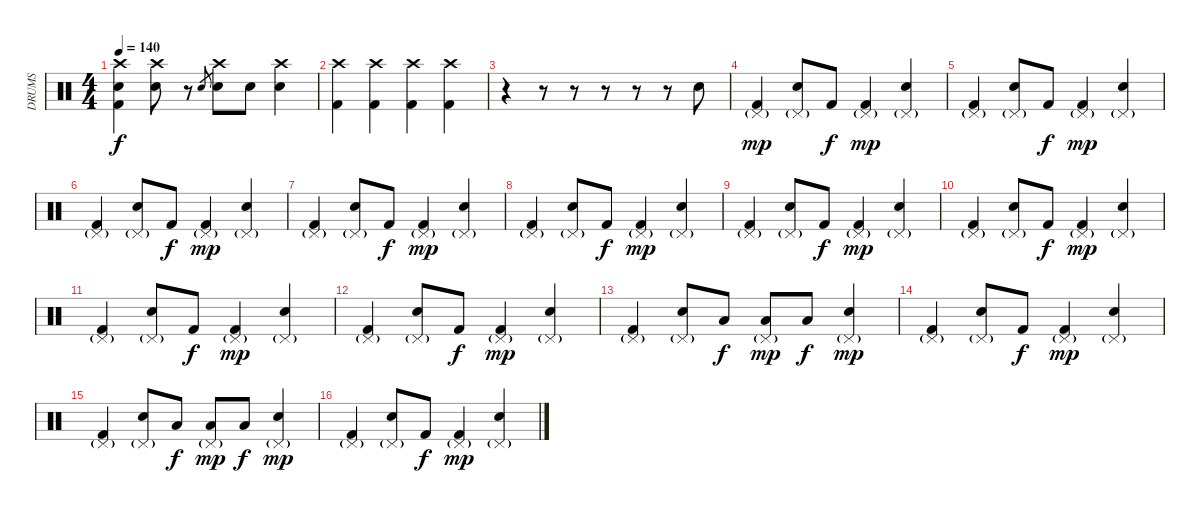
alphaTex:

\track ("DRUMS" "DRUMS") {instrument percussion}
\staff {score}
\articulation defaults
\ts (4 4)
\tempo 140
\clef neutral
\ks c
("Kick (hit) 2" "Electric Snare (hit)" "Crash high (hit)").4{dy f} ("Electric Snare (hit)" "Crash high (hit)").8 r.8 "Electric Snare (hit)".8{gr} ("Electric Snare (hit)" "Crash high (hit)").8 "Electric Snare (hit)".8 ("Electric Snare (hit)" "Crash high (hit)").4 |
("Kick (hit) 2" "Crash high (hit)").4 ("Kick (hit) 2" "Crash high (hit)").4 ("Kick (hit) 2" "Crash high (hit)").4 ("Kick (hit) 2" "Crash high (hit)").4 |
r.4 r.8 r.8 r.8 r.8 r.8 "Electric Snare (hit)".8 |
("Kick (hit) 2" "Pedal Hi-Hat (hit)"{g}).4{dy mp} ("Electric Snare (hit)" "Pedal Hi-Hat (hit)"{g}).8 "Kick (hit) 2".8{dy f} ("Kick (hit) 2" "Pedal Hi-Hat (hit)"{g}).4{dy mp} ("Electric Snare (hit)" "Pedal Hi-Hat (hit)"{g}).4 |
("Kick (hit) 2" "Pedal Hi-Hat (hit)"{g}).4 ("Electric Snare (hit)" "Pedal Hi-Hat (hit)"{g}).8 "Kick (hit) 2".8{dy f} ("Kick (hit) 2" "Pedal Hi-Hat (hit)"{g}).4{dy mp} ("Electric Snare (hit)" "Pedal Hi-Hat (hit)"{g}).4 |
("Kick (hit) 2" "Pedal Hi-Hat (hit)"{g}).4 ("Electric Snare (hit)" "Pedal Hi-Hat (hit)"{g}).8 "Kick (hit) 2".8{dy f} ("Kick (hit) 2" "Pedal Hi-Hat (hit)"{g}).4{dy mp} ("Electric Snare (hit)" "Pedal Hi-Hat (hit)"{g}).4 |
("Kick (hit) 2" "Pedal Hi-Hat (hit)"{g}).4 ("Electric Snare (hit)" "Pedal Hi-Hat (hit)"{g}).8 "Kick (hit) 2".8{dy f} ("Kick (hit) 2" "Pedal Hi-Hat (hit)"{g}).4{dy mp} ("Electric Snare (hit)" "Pedal Hi-Hat (hit)"{g}).4 |
("Kick (hit) 2" "Pedal Hi-Hat (hit)"{g}).4 ("Electric Snare (hit)" "Pedal Hi-Hat (hit)"{g}).8 "Kick (hit) 2".8{dy f} ("Kick (hit) 2" "Pedal Hi-Hat (hit)"{g}).4{dy mp} ("Electric Snare (hit)" "Pedal Hi-Hat (hit)"{g}).4 |
("Kick (hit) 2" "Pedal Hi-Hat (hit)"{g}).4 ("Electric Snare (hit)" "Pedal Hi-Hat (hit)"{g}).8 "Kick (hit) 2".8{dy f} ("Kick (hit) 2" "Pedal Hi-Hat (hit)"{g}).4{dy mp} ("Electric Snare (hit)" "Pedal Hi-Hat (hit)"{g}).4 |
("Kick (hit) 2" "Pedal Hi-Hat (hit)"{g}).4 ("Electric Snare (hit)" "Pedal Hi-Hat (hit)"{g}).8 "Kick (hit) 2".8{dy f} ("Kick (hit) 2" "Pedal Hi-Hat (hit)"{g}).4{dy mp} ("Electric Snare (hit)" "Pedal Hi-Hat (hit)"{g}).4 |
("Kick (hit) 2" "Pedal Hi-Hat (hit)"{g}).4 ("Electric Snare (hit)" "Pedal Hi-Hat (hit)"{g}).8 "Kick (hit) 2".8{dy f} ("Kick (hit) 2" "Pedal Hi-Hat (hit)"{g}).4{dy mp} ("Electric Snare (hit)" "Pedal Hi-Hat (hit)"{g}).4 |
("Kick (hit) 2" "Pedal Hi-Hat (hit)"{g}).4 ("Electric Snare (hit)" "Pedal Hi-Hat (hit)"{g}).8 "Kick (hit) 2".8{dy f} ("Kick (hit) 2" "Pedal Hi-Hat (hit)"{g}).4{dy mp} ("Electric Snare (hit)" "Pedal Hi-Hat (hit)"{g}).4 |
("Kick (hit) 2" "Pedal Hi-Hat (hit)"{g}).4 ("Electric Snare (hit)" "Pedal Hi-Hat (hit)"{g}).8 "Low Tom (hit)".8{dy f} ("Low Tom (hit)" "Pedal Hi-Hat (hit)"{g}).8{dy mp} "Low Tom (hit)".8{dy f} ("Electric Snare (hit)" "Pedal Hi-Hat (hit)"{g}).4{dy mp} |
("Kick (hit) 2" "Pedal Hi-Hat (hit)"{g}).4 ("Electric Snare (hit)" "Pedal Hi-Hat (hit)"{g}).8 "Kick (hit) 2".8{dy f} ("Kick (hit) 2" "Pedal Hi-Hat (hit)"{g}).4{dy mp} ("Electric Snare (hit)" "Pedal Hi-Hat (hit)"{g}).4 |
("Kick (hit) 2" "Pedal Hi-Hat (hit)"{g}).4 ("Electric Snare (hit)" "Pedal Hi-Hat (hit)"{g}).8 "Low Tom (hit)".8{dy f} ("Low Tom (hit)" "Pedal Hi-Hat (hit)"{g}).8{dy mp} "Low Tom (hit)".8{dy f} ("Electric Snare (hit)" "Pedal Hi-Hat (hit)"{g}).4{dy mp} |
("Kick (hit) 2" "Pedal Hi-Hat (hit)"{g}).4 ("Electric Snare (hit)" "Pedal Hi-Hat (hit)"{g}).8 "Kick (hit) 2".8{dy f} ("Kick (hit) 2" "Pedal Hi-Hat (hit)"{g}).4{dy mp} ("Electric Snare (hit)" "Pedal Hi-Hat (hit)"{g}).4
